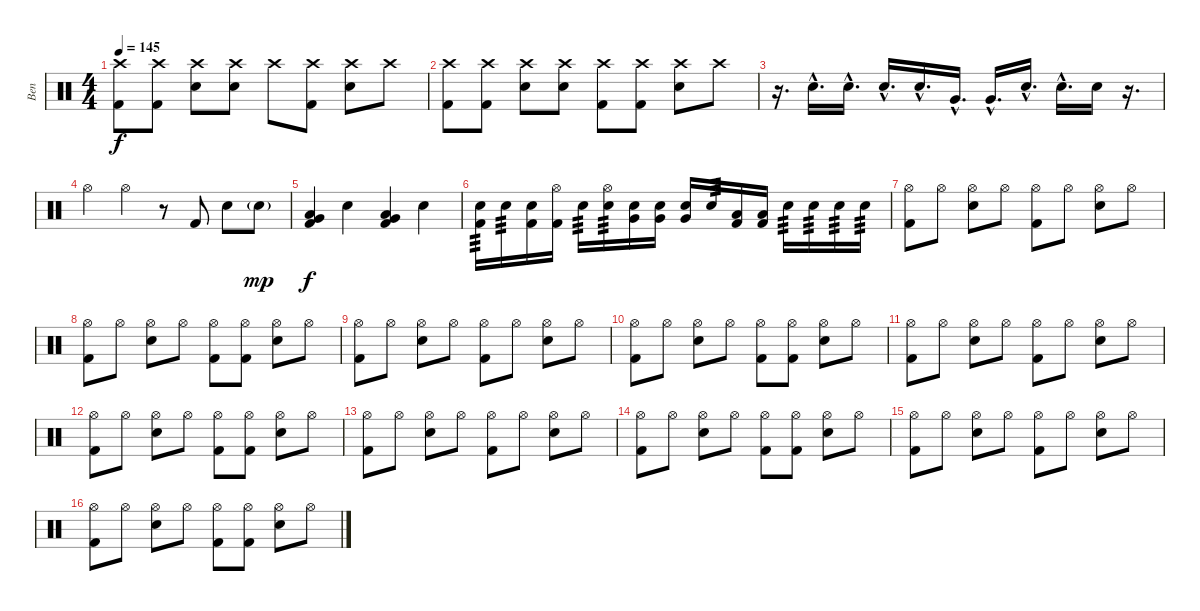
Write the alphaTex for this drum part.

\track ("Ben" "Ben") {instrument percussion}
\staff {score}
\articulation defaults
\ts (4 4)
\tempo 145
\clef neutral
\ks c
("Crash high (hit)" "Kick (hit) 2").8{dy f} ("Crash high (hit)" "Kick (hit) 2").8 ("Crash high (hit)" "Electric Snare (hit)").8 ("Crash high (hit)" "Electric Snare (hit)").8 "Crash high (hit)".8 ("Crash high (hit)" "Kick (hit) 2").8 ("Crash high (hit)" "Electric Snare (hit)").8 "Crash high (hit)".8 |
("Crash high (hit)" "Kick (hit) 2").8 ("Crash high (hit)" "Kick (hit) 2").8 ("Crash high (hit)" "Electric Snare (hit)").8 ("Crash high (hit)" "Electric Snare (hit)").8 ("Crash high (hit)" "Kick (hit) 2").8 ("Crash high (hit)" "Kick (hit) 2").8 ("Crash high (hit)" "Electric Snare (hit)").8 "Crash high (hit)".8 |
r.16{d} "Electric Snare (hit)"{hac}.16{d} "Electric Snare (hit)"{hac}.16{d} "Electric Snare (hit)"{hac}.16{d} "Electric Snare (hit)"{hac}.16{d} "Very Low Tom (hit)"{hac}.16{d} "Very Low Tom (hit)"{hac}.16{d} "Electric Snare (hit)"{hac}.16{d} "Electric Snare (hit)"{hac}.16{d} "Electric Snare (hit)".16 r.16{d} |
"Hi-Hat (open)".4 "Hi-Hat (open)".4 r.8 "Kick (hit) 2".8 "Electric Snare (hit)".8 "Electric Snare (hit)"{g}.8{dy mp} |
("Very Low Tom (hit)" "Low Floor Tom (hit)" "Kick (hit) 2").4{dy f} "Electric Snare (hit)".4 ("Very Low Tom (hit)" "Low Floor Tom (hit)" "Kick (hit) 2").4 "Electric Snare (hit)".4 |
("Electric Snare (hit)" "Kick (hit) 2").16{tp 3} "Electric Snare (hit)".16{tp 3} ("Electric Snare (hit)" "Kick (hit) 2").16 ("Hi-Hat (open)" "Kick (hit) 2").16 "Electric Snare (hit)".16{tp 3} ("Hi-Hat (open)" "Electric Snare (hit)").16{tp 3} ("Very Low Tom (hit)" "Electric Snare (hit)").16 ("Very Low Tom (hit)" "Electric Snare (hit)").16 ("Very Low Tom (hit)" "Electric Snare (hit)").16 "Electric Snare (hit)".16{tp 3} ("Low Floor Tom (hit)" "Kick (hit) 2").16 ("Low Floor Tom (hit)" "Kick (hit) 2").16 "Electric Snare (hit)".16{tp 3} "Electric Snare (hit)".16{tp 3} "Electric Snare (hit)".16{tp 3} "Electric Snare (hit)".16{tp 3} |
("Hi-Hat (open)" "Kick (hit) 2").8 "Hi-Hat (open)".8 ("Hi-Hat (open)" "Electric Snare (hit)").8 "Hi-Hat (open)".8 ("Hi-Hat (open)" "Kick (hit) 2").8 "Hi-Hat (open)".8 ("Hi-Hat (open)" "Electric Snare (hit)").8 "Hi-Hat (open)".8 |
("Hi-Hat (open)" "Kick (hit) 2").8 "Hi-Hat (open)".8 ("Hi-Hat (open)" "Electric Snare (hit)").8 "Hi-Hat (open)".8 ("Hi-Hat (open)" "Kick (hit) 2").8 ("Hi-Hat (open)" "Kick (hit) 2").8 ("Hi-Hat (open)" "Electric Snare (hit)").8 "Hi-Hat (open)".8 |
("Hi-Hat (open)" "Kick (hit) 2").8 "Hi-Hat (open)".8 ("Hi-Hat (open)" "Electric Snare (hit)").8 "Hi-Hat (open)".8 ("Hi-Hat (open)" "Kick (hit) 2").8 "Hi-Hat (open)".8 ("Hi-Hat (open)" "Electric Snare (hit)").8 "Hi-Hat (open)".8 |
("Hi-Hat (open)" "Kick (hit) 2").8 "Hi-Hat (open)".8 ("Hi-Hat (open)" "Electric Snare (hit)").8 "Hi-Hat (open)".8 ("Hi-Hat (open)" "Kick (hit) 2").8 ("Hi-Hat (open)" "Kick (hit) 2").8 ("Hi-Hat (open)" "Electric Snare (hit)").8 "Hi-Hat (open)".8 |
("Hi-Hat (open)" "Kick (hit) 2").8 "Hi-Hat (open)".8 ("Hi-Hat (open)" "Electric Snare (hit)").8 "Hi-Hat (open)".8 ("Hi-Hat (open)" "Kick (hit) 2").8 "Hi-Hat (open)".8 ("Hi-Hat (open)" "Electric Snare (hit)").8 "Hi-Hat (open)".8 |
("Hi-Hat (open)" "Kick (hit) 2").8 "Hi-Hat (open)".8 ("Hi-Hat (open)" "Electric Snare (hit)").8 "Hi-Hat (open)".8 ("Hi-Hat (open)" "Kick (hit) 2").8 ("Hi-Hat (open)" "Kick (hit) 2").8 ("Hi-Hat (open)" "Electric Snare (hit)").8 "Hi-Hat (open)".8 |
("Hi-Hat (open)" "Kick (hit) 2").8 "Hi-Hat (open)".8 ("Hi-Hat (open)" "Electric Snare (hit)").8 "Hi-Hat (open)".8 ("Hi-Hat (open)" "Kick (hit) 2").8 "Hi-Hat (open)".8 ("Hi-Hat (open)" "Electric Snare (hit)").8 "Hi-Hat (open)".8 |
("Hi-Hat (open)" "Kick (hit) 2").8 "Hi-Hat (open)".8 ("Hi-Hat (open)" "Electric Snare (hit)").8 "Hi-Hat (open)".8 ("Hi-Hat (open)" "Kick (hit) 2").8 ("Hi-Hat (open)" "Kick (hit) 2").8 ("Hi-Hat (open)" "Electric Snare (hit)").8 "Hi-Hat (open)".8 |
("Hi-Hat (open)" "Kick (hit) 2").8 "Hi-Hat (open)".8 ("Hi-Hat (open)" "Electric Snare (hit)").8 "Hi-Hat (open)".8 ("Hi-Hat (open)" "Kick (hit) 2").8 "Hi-Hat (open)".8 ("Hi-Hat (open)" "Electric Snare (hit)").8 "Hi-Hat (open)".8 |
("Hi-Hat (open)" "Kick (hit) 2").8 "Hi-Hat (open)".8 ("Hi-Hat (open)" "Electric Snare (hit)").8 "Hi-Hat (open)".8 ("Hi-Hat (open)" "Kick (hit) 2").8 ("Hi-Hat (open)" "Kick (hit) 2").8 ("Hi-Hat (open)" "Electric Snare (hit)").8 "Hi-Hat (open)".8
